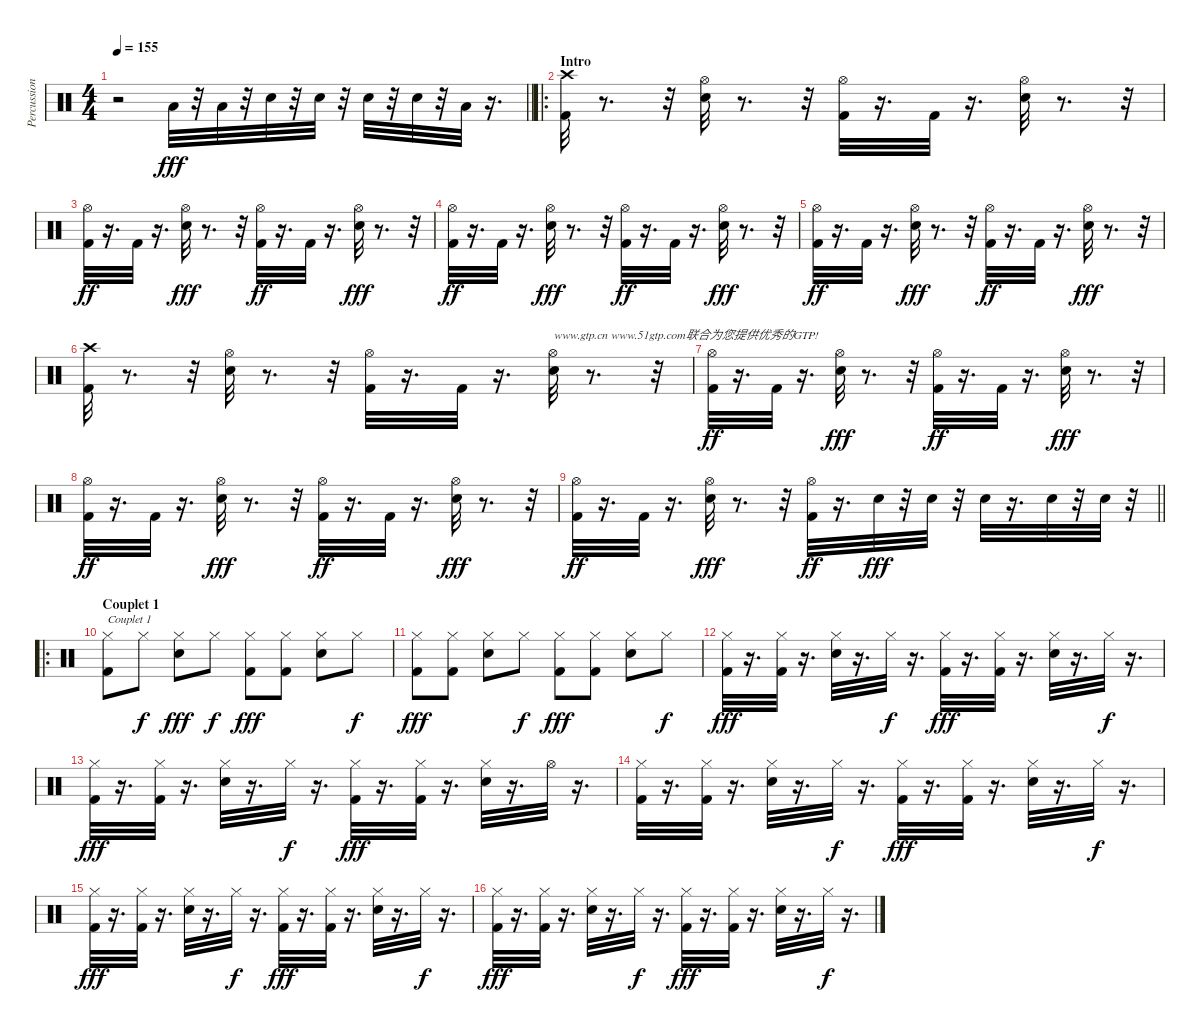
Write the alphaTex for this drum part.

\track ("Percussions" "Percussion") {instrument percussion}
\staff {score}
\articulation defaults
\ts (4 4)
\tempo 155
\clef neutral
\barLineRight lightlight
\ks c
r.2{dy fff} "Low Floor Tom (hit)".32 r.32 "Low Floor Tom (hit)".32 r.32 "Snare (hit) 2".32 r.32 "Snare (hit) 2".32 r.32 "Snare (hit) 2".32 r.32 "Snare (hit) 2".32 r.32 "Low Tom (hit)".32 r.16{d} |
\ro
\section ("" "Intro")
("Crash high (hit)" "Kick (hit) 2").32 r.8{d} r.32 ("Hi-Hat (open)" "Snare (hit) 2").32 r.8{d} r.32 ("Hi-Hat (open)" "Kick (hit) 2").32 r.16{d} "Kick (hit) 2".32 r.16{d} ("Hi-Hat (open)" "Snare (hit) 2").32 r.8{d} r.32 |
("Hi-Hat (open)" "Kick (hit) 2").32{dy ff} r.16{d} "Kick (hit) 2".32 r.16{d} ("Hi-Hat (open)" "Snare (hit) 2").32{dy fff} r.8{d} r.32 ("Hi-Hat (open)" "Kick (hit) 2").32{dy ff} r.16{d} "Kick (hit) 2".32 r.16{d} ("Hi-Hat (open)" "Snare (hit) 2").32{dy fff} r.8{d} r.32 |
("Hi-Hat (open)" "Kick (hit) 2").32{dy ff} r.16{d} "Kick (hit) 2".32 r.16{d} ("Hi-Hat (open)" "Snare (hit) 2").32{dy fff} r.8{d} r.32 ("Hi-Hat (open)" "Kick (hit) 2").32{dy ff} r.16{d} "Kick (hit) 2".32 r.16{d} ("Hi-Hat (open)" "Snare (hit) 2").32{dy fff} r.8{d} r.32 |
("Hi-Hat (open)" "Kick (hit) 2").32{dy ff} r.16{d} "Kick (hit) 2".32 r.16{d} ("Hi-Hat (open)" "Snare (hit) 2").32{dy fff} r.8{d} r.32 ("Hi-Hat (open)" "Kick (hit) 2").32{dy ff} r.16{d} "Kick (hit) 2".32 r.16{d} ("Hi-Hat (open)" "Snare (hit) 2").32{dy fff} r.8{d} r.32 |
("Crash high (hit)" "Kick (hit) 2").32 r.8{d} r.32 ("Hi-Hat (open)" "Snare (hit) 2").32 r.8{d} r.32 ("Hi-Hat (open)" "Kick (hit) 2").32 r.16{d} "Kick (hit) 2".32 r.16{d} ("Hi-Hat (open)" "Snare (hit) 2").32{txt "www.gtp.cn www.51gtp.com联合为您提供优秀的GTP!"} r.8{d} r.32 |
("Hi-Hat (open)" "Kick (hit) 2").32{dy ff} r.16{d} "Kick (hit) 2".32 r.16{d} ("Hi-Hat (open)" "Snare (hit) 2").32{dy fff} r.8{d} r.32 ("Hi-Hat (open)" "Kick (hit) 2").32{dy ff} r.16{d} "Kick (hit) 2".32 r.16{d} ("Hi-Hat (open)" "Snare (hit) 2").32{dy fff} r.8{d} r.32 |
("Hi-Hat (open)" "Kick (hit) 2").32{dy ff} r.16{d} "Kick (hit) 2".32 r.16{d} ("Hi-Hat (open)" "Snare (hit) 2").32{dy fff} r.8{d} r.32 ("Hi-Hat (open)" "Kick (hit) 2").32{dy ff} r.16{d} "Kick (hit) 2".32 r.16{d} ("Hi-Hat (open)" "Snare (hit) 2").32{dy fff} r.8{d} r.32 |
\barLineRight lightlight
("Hi-Hat (open)" "Kick (hit) 2").32{dy ff} r.16{d} "Kick (hit) 2".32 r.16{d} ("Hi-Hat (open)" "Snare (hit) 2").32{dy fff} r.8{d} r.32 ("Hi-Hat (open)" "Kick (hit) 2").32{dy ff} r.16{d} "Snare (hit) 2".32{dy fff} r.32 "Snare (hit) 2".32 r.32 "Snare (hit) 2".32 r.16{d} "Snare (hit) 2".32 r.32 "Snare (hit) 2".32 r.32 |
\ro
\section ("" "Couplet 1")
("Hi-Hat (closed)" "Kick (hit) 2").8{txt "Couplet 1"} "Hi-Hat (closed)".8{dy f} ("Hi-Hat (closed)" "Snare (hit) 2").8{dy fff} "Hi-Hat (closed)".8{dy f} ("Hi-Hat (closed)" "Kick (hit) 2").8{dy fff} ("Hi-Hat (closed)" "Kick (hit) 2").8 ("Hi-Hat (closed)" "Snare (hit) 2").8 "Hi-Hat (closed)".8{dy f} |
("Hi-Hat (closed)" "Kick (hit) 2").8{dy fff} ("Kick (hit) 2" "Hi-Hat (closed)").8 ("Hi-Hat (closed)" "Snare (hit) 2").8 "Hi-Hat (closed)".8{dy f} ("Hi-Hat (closed)" "Kick (hit) 2").8{dy fff} ("Hi-Hat (closed)" "Kick (hit) 2").8 ("Hi-Hat (closed)" "Snare (hit) 2").8 "Hi-Hat (closed)".8{dy f} |
("Hi-Hat (closed)" "Kick (hit) 2").32{dy fff} r.16{d} ("Kick (hit) 2" "Hi-Hat (closed)").32 r.16{d} ("Hi-Hat (closed)" "Snare (hit) 2").32 r.16{d} "Hi-Hat (closed)".32{dy f} r.16{d} ("Hi-Hat (closed)" "Kick (hit) 2").32{dy fff} r.16{d} ("Hi-Hat (closed)" "Kick (hit) 2").32 r.16{d} ("Hi-Hat (closed)" "Snare (hit) 2").32 r.16{d} "Hi-Hat (closed)".32{dy f} r.16{d} |
("Hi-Hat (closed)" "Kick (hit) 2").32{dy fff} r.16{d} ("Kick (hit) 2" "Hi-Hat (closed)").32 r.16{d} ("Hi-Hat (closed)" "Snare (hit) 2").32 r.16{d} "Hi-Hat (closed)".32{dy f} r.16{d} ("Hi-Hat (closed)" "Kick (hit) 2").32{dy fff} r.16{d} ("Hi-Hat (closed)" "Kick (hit) 2").32 r.16{d} ("Hi-Hat (closed)" "Snare (hit) 2").32 r.16{d} "Hi-Hat (open)".32 r.16{d} |
("Hi-Hat (closed)" "Kick (hit) 2").32 r.16{d} ("Kick (hit) 2" "Hi-Hat (closed)").32 r.16{d} ("Hi-Hat (closed)" "Snare (hit) 2").32 r.16{d} "Hi-Hat (closed)".32{dy f} r.16{d} ("Hi-Hat (closed)" "Kick (hit) 2").32{dy fff} r.16{d} ("Hi-Hat (closed)" "Kick (hit) 2").32 r.16{d} ("Hi-Hat (closed)" "Snare (hit) 2").32 r.16{d} "Hi-Hat (closed)".32{dy f} r.16{d} |
("Hi-Hat (closed)" "Kick (hit) 2").32{dy fff} r.16{d} ("Kick (hit) 2" "Hi-Hat (closed)").32 r.16{d} ("Hi-Hat (closed)" "Snare (hit) 2").32 r.16{d} "Hi-Hat (closed)".32{dy f} r.16{d} ("Hi-Hat (closed)" "Kick (hit) 2").32{dy fff} r.16{d} ("Hi-Hat (closed)" "Kick (hit) 2").32 r.16{d} ("Hi-Hat (closed)" "Snare (hit) 2").32 r.16{d} "Hi-Hat (closed)".32{dy f} r.16{d} |
("Hi-Hat (closed)" "Kick (hit) 2").32{dy fff} r.16{d} ("Kick (hit) 2" "Hi-Hat (closed)").32 r.16{d} ("Hi-Hat (closed)" "Snare (hit) 2").32 r.16{d} "Hi-Hat (closed)".32{dy f} r.16{d} ("Hi-Hat (closed)" "Kick (hit) 2").32{dy fff} r.16{d} ("Hi-Hat (closed)" "Kick (hit) 2").32 r.16{d} ("Hi-Hat (closed)" "Snare (hit) 2").32 r.16{d} "Hi-Hat (closed)".32{dy f} r.16{d}
